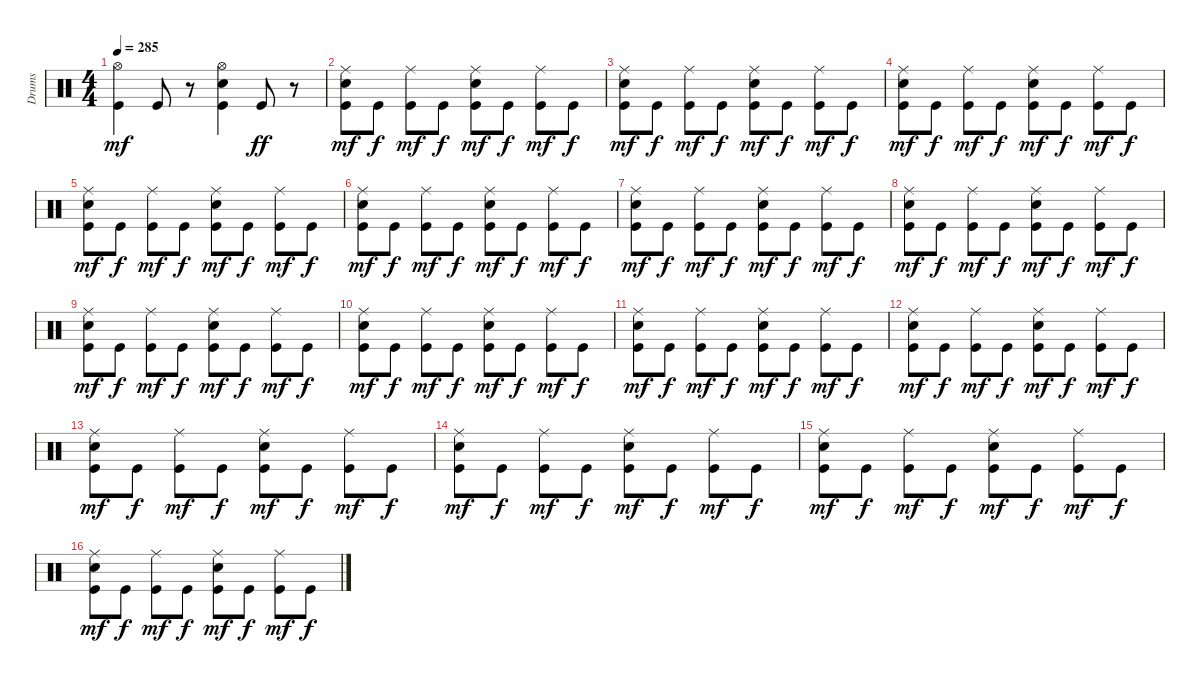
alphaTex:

\track ("Drums" "Drums") {instrument percussion}
\staff {score}
\articulation defaults
\ts (4 4)
\tempo 285
\clef neutral
\ks c
("Hi-Hat (open)" "Kick (hit)").4{dy mf} "Kick (hit)".8 r.8 ("Hi-Hat (open)" "Snare (hit) 2" "Kick (hit)").4 "Kick (hit)".8{dy ff} r.8 |
("Ride (middle)" "Snare (hit) 2" "Kick (hit)").8{dy mf} "Kick (hit)".8{dy f} ("Ride (middle)" "Kick (hit)").8{dy mf} "Kick (hit)".8{dy f} ("Ride (middle)" "Snare (hit) 2" "Kick (hit)").8{dy mf} "Kick (hit)".8{dy f} ("Ride (middle)" "Kick (hit)").8{dy mf} "Kick (hit)".8{dy f} |
("Ride (middle)" "Snare (hit) 2" "Kick (hit)").8{dy mf} "Kick (hit)".8{dy f} ("Ride (middle)" "Kick (hit)").8{dy mf} "Kick (hit)".8{dy f} ("Ride (middle)" "Snare (hit) 2" "Kick (hit)").8{dy mf} "Kick (hit)".8{dy f} ("Ride (middle)" "Kick (hit)").8{dy mf} "Kick (hit)".8{dy f} |
("Ride (middle)" "Snare (hit) 2" "Kick (hit)").8{dy mf} "Kick (hit)".8{dy f} ("Ride (middle)" "Kick (hit)").8{dy mf} "Kick (hit)".8{dy f} ("Ride (middle)" "Snare (hit) 2" "Kick (hit)").8{dy mf} "Kick (hit)".8{dy f} ("Ride (middle)" "Kick (hit)").8{dy mf} "Kick (hit)".8{dy f} |
("Ride (middle)" "Snare (hit) 2" "Kick (hit)").8{dy mf} "Kick (hit)".8{dy f} ("Ride (middle)" "Kick (hit)").8{dy mf} "Kick (hit)".8{dy f} ("Ride (middle)" "Snare (hit) 2" "Kick (hit)").8{dy mf} "Kick (hit)".8{dy f} ("Ride (middle)" "Kick (hit)").8{dy mf} "Kick (hit)".8{dy f} |
("Ride (middle)" "Snare (hit) 2" "Kick (hit)").8{dy mf} "Kick (hit)".8{dy f} ("Ride (middle)" "Kick (hit)").8{dy mf} "Kick (hit)".8{dy f} ("Ride (middle)" "Snare (hit) 2" "Kick (hit)").8{dy mf} "Kick (hit)".8{dy f} ("Ride (middle)" "Kick (hit)").8{dy mf} "Kick (hit)".8{dy f} |
("Ride (middle)" "Snare (hit) 2" "Kick (hit)").8{dy mf} "Kick (hit)".8{dy f} ("Ride (middle)" "Kick (hit)").8{dy mf} "Kick (hit)".8{dy f} ("Ride (middle)" "Snare (hit) 2" "Kick (hit)").8{dy mf} "Kick (hit)".8{dy f} ("Ride (middle)" "Kick (hit)").8{dy mf} "Kick (hit)".8{dy f} |
("Ride (middle)" "Snare (hit) 2" "Kick (hit)").8{dy mf} "Kick (hit)".8{dy f} ("Ride (middle)" "Kick (hit)").8{dy mf} "Kick (hit)".8{dy f} ("Ride (middle)" "Snare (hit) 2" "Kick (hit)").8{dy mf} "Kick (hit)".8{dy f} ("Ride (middle)" "Kick (hit)").8{dy mf} "Kick (hit)".8{dy f} |
("Ride (middle)" "Snare (hit) 2" "Kick (hit)").8{dy mf} "Kick (hit)".8{dy f} ("Ride (middle)" "Kick (hit)").8{dy mf} "Kick (hit)".8{dy f} ("Ride (middle)" "Snare (hit) 2" "Kick (hit)").8{dy mf} "Kick (hit)".8{dy f} ("Ride (middle)" "Kick (hit)").8{dy mf} "Kick (hit)".8{dy f} |
("Ride (middle)" "Snare (hit) 2" "Kick (hit)").8{dy mf} "Kick (hit)".8{dy f} ("Ride (middle)" "Kick (hit)").8{dy mf} "Kick (hit)".8{dy f} ("Ride (middle)" "Snare (hit) 2" "Kick (hit)").8{dy mf} "Kick (hit)".8{dy f} ("Ride (middle)" "Kick (hit)").8{dy mf} "Kick (hit)".8{dy f} |
("Ride (middle)" "Snare (hit) 2" "Kick (hit)").8{dy mf} "Kick (hit)".8{dy f} ("Ride (middle)" "Kick (hit)").8{dy mf} "Kick (hit)".8{dy f} ("Ride (middle)" "Snare (hit) 2" "Kick (hit)").8{dy mf} "Kick (hit)".8{dy f} ("Ride (middle)" "Kick (hit)").8{dy mf} "Kick (hit)".8{dy f} |
("Ride (middle)" "Snare (hit) 2" "Kick (hit)").8{dy mf} "Kick (hit)".8{dy f} ("Ride (middle)" "Kick (hit)").8{dy mf} "Kick (hit)".8{dy f} ("Ride (middle)" "Snare (hit) 2" "Kick (hit)").8{dy mf} "Kick (hit)".8{dy f} ("Ride (middle)" "Kick (hit)").8{dy mf} "Kick (hit)".8{dy f} |
("Ride (middle)" "Snare (hit) 2" "Kick (hit)").8{dy mf} "Kick (hit)".8{dy f} ("Ride (middle)" "Kick (hit)").8{dy mf} "Kick (hit)".8{dy f} ("Ride (middle)" "Snare (hit) 2" "Kick (hit)").8{dy mf} "Kick (hit)".8{dy f} ("Ride (middle)" "Kick (hit)").8{dy mf} "Kick (hit)".8{dy f} |
("Ride (middle)" "Snare (hit) 2" "Kick (hit)").8{dy mf} "Kick (hit)".8{dy f} ("Ride (middle)" "Kick (hit)").8{dy mf} "Kick (hit)".8{dy f} ("Ride (middle)" "Snare (hit) 2" "Kick (hit)").8{dy mf} "Kick (hit)".8{dy f} ("Ride (middle)" "Kick (hit)").8{dy mf} "Kick (hit)".8{dy f} |
("Ride (middle)" "Snare (hit) 2" "Kick (hit)").8{dy mf} "Kick (hit)".8{dy f} ("Ride (middle)" "Kick (hit)").8{dy mf} "Kick (hit)".8{dy f} ("Ride (middle)" "Snare (hit) 2" "Kick (hit)").8{dy mf} "Kick (hit)".8{dy f} ("Ride (middle)" "Kick (hit)").8{dy mf} "Kick (hit)".8{dy f} |
("Ride (middle)" "Snare (hit) 2" "Kick (hit)").8{dy mf} "Kick (hit)".8{dy f} ("Ride (middle)" "Kick (hit)").8{dy mf} "Kick (hit)".8{dy f} ("Ride (middle)" "Snare (hit) 2" "Kick (hit)").8{dy mf} "Kick (hit)".8{dy f} ("Ride (middle)" "Kick (hit)").8{dy mf} "Kick (hit)".8{dy f}
